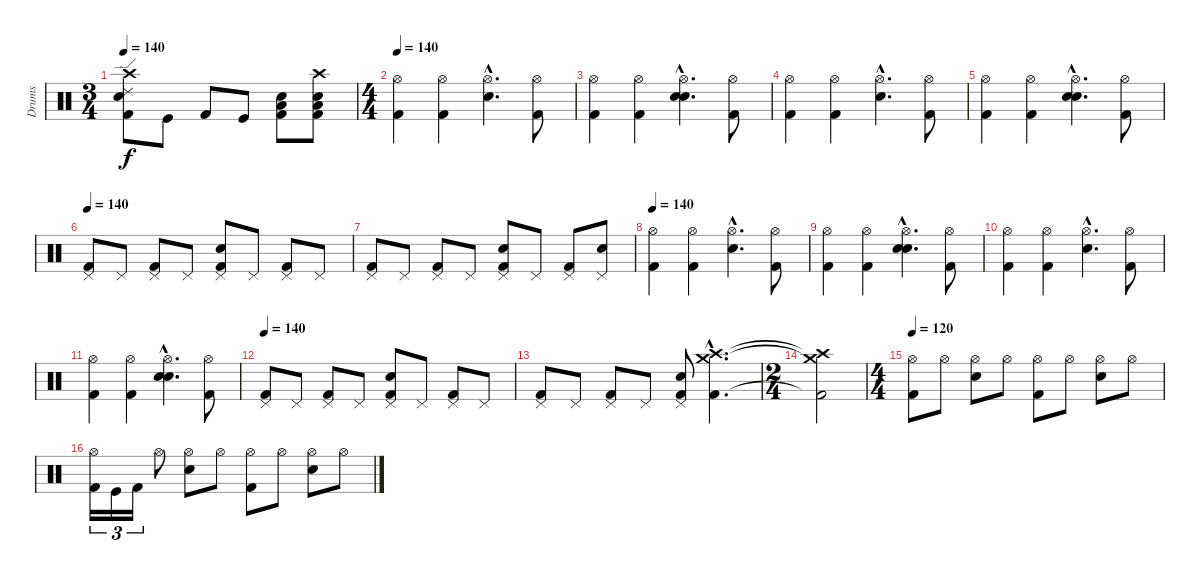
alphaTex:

\track ("Drums" "Drums") {instrument percussion}
\staff {score}
\articulation defaults
\ts (3 4)
\tempo 140
\clef neutral
\ks c
("Crash high (hit)" "Ride (edge) 2" "Electric Snare (hit)" "Kick (hit) 2").8{dy f} "Kick (hit)".8 "Kick (hit) 2".8 "Kick (hit)".8 ("Electric Snare (hit)" "Low Tom (hit)" "Kick (hit) 2").8 ("Crash high (hit)" "Electric Snare (hit)" "Low Tom (hit)" "Kick (hit) 2").8 |
\ts (4 4)
\tempo 140
("Hi-Hat (open)" "Kick (hit) 2").4 ("Hi-Hat (open)" "Kick (hit) 2").4 ("Hi-Hat (open)"{hac} "Snare (hit) 2"{hac}).4{d} ("Hi-Hat (open)" "Kick (hit) 2").8 |
("Hi-Hat (open)" "Kick (hit) 2").4 ("Hi-Hat (open)" "Kick (hit) 2").4 ("Hi-Hat (open)"{hac} "Snare (hit) 2"{hac} "Electric Snare (hit)"{hac}).4{d} ("Hi-Hat (open)" "Kick (hit) 2").8 |
("Hi-Hat (open)" "Kick (hit) 2").4 ("Hi-Hat (open)" "Kick (hit) 2").4 ("Hi-Hat (open)"{hac} "Snare (hit) 2"{hac}).4{d} ("Hi-Hat (open)" "Kick (hit) 2").8 |
("Hi-Hat (open)" "Kick (hit) 2").4 ("Hi-Hat (open)" "Kick (hit) 2").4 ("Hi-Hat (open)"{hac} "Snare (hit) 2"{hac} "Electric Snare (hit)"{hac}).4{d} ("Hi-Hat (open)" "Kick (hit) 2").8 |
\tempo 140
("Pedal Hi-Hat (hit)" "Kick (hit) 2").8 "Pedal Hi-Hat (hit)".8 ("Pedal Hi-Hat (hit)" "Kick (hit) 2").8 "Pedal Hi-Hat (hit)".8 ("Pedal Hi-Hat (hit)" "Snare (hit) 2" "Kick (hit) 2").8 "Pedal Hi-Hat (hit)".8 ("Pedal Hi-Hat (hit)" "Kick (hit) 2").8 "Pedal Hi-Hat (hit)".8 |
("Pedal Hi-Hat (hit)" "Kick (hit) 2").8 "Pedal Hi-Hat (hit)".8 ("Pedal Hi-Hat (hit)" "Kick (hit) 2").8 "Pedal Hi-Hat (hit)".8 ("Pedal Hi-Hat (hit)" "Snare (hit) 2" "Kick (hit) 2").8 "Pedal Hi-Hat (hit)".8 ("Pedal Hi-Hat (hit)" "Kick (hit) 2").8 ("Pedal Hi-Hat (hit)" "Snare (hit) 2").8 |
\tempo 140
("Hi-Hat (open)" "Kick (hit) 2").4 ("Hi-Hat (open)" "Kick (hit) 2").4 ("Hi-Hat (open)"{hac} "Snare (hit) 2"{hac}).4{d} ("Hi-Hat (open)" "Kick (hit) 2").8 |
("Hi-Hat (open)" "Kick (hit) 2").4 ("Hi-Hat (open)" "Kick (hit) 2").4 ("Hi-Hat (open)"{hac} "Snare (hit) 2"{hac} "Electric Snare (hit)"{hac}).4{d} ("Hi-Hat (open)" "Kick (hit) 2").8 |
("Hi-Hat (open)" "Kick (hit) 2").4 ("Hi-Hat (open)" "Kick (hit) 2").4 ("Hi-Hat (open)"{hac} "Snare (hit) 2"{hac}).4{d} ("Hi-Hat (open)" "Kick (hit) 2").8 |
("Hi-Hat (open)" "Kick (hit) 2").4 ("Hi-Hat (open)" "Kick (hit) 2").4 ("Hi-Hat (open)"{hac} "Snare (hit) 2"{hac} "Electric Snare (hit)"{hac}).4{d} ("Hi-Hat (open)" "Kick (hit) 2").8 |
\tempo 140
("Pedal Hi-Hat (hit)" "Kick (hit) 2").8 "Pedal Hi-Hat (hit)".8 ("Pedal Hi-Hat (hit)" "Kick (hit) 2").8 "Pedal Hi-Hat (hit)".8 ("Pedal Hi-Hat (hit)" "Snare (hit) 2" "Kick (hit) 2").8 "Pedal Hi-Hat (hit)".8 ("Pedal Hi-Hat (hit)" "Kick (hit) 2").8 "Pedal Hi-Hat (hit)".8 |
("Pedal Hi-Hat (hit)" "Kick (hit) 2").8 "Pedal Hi-Hat (hit)".8 ("Pedal Hi-Hat (hit)" "Kick (hit) 2").8 "Pedal Hi-Hat (hit)".8 ("Pedal Hi-Hat (hit)" "Snare (hit) 2" "Kick (hit) 2").8 ("Crash medium (hit)"{hac} "Crash high (hit)"{hac} "Kick (hit) 2"{hac}).4{d} |
\ts (2 4)
("Crash medium (hit)"{t} "Crash high (hit)"{t} "Kick (hit) 2"{t}).2 |
\ts (4 4)
\tempo 120
("Hi-Hat (open)" "Kick (hit) 2").8 "Hi-Hat (open)".8 ("Hi-Hat (open)" "Snare (hit) 2").8 "Hi-Hat (open)".8 ("Hi-Hat (open)" "Kick (hit) 2").8 "Hi-Hat (open)".8 ("Hi-Hat (open)" "Snare (hit) 2").8 "Hi-Hat (open)".8 |
("Hi-Hat (open)" "Kick (hit) 2").16{tu (3 2)} "Kick (hit)".16{tu (3 2)} "Kick (hit) 2".16{tu (3 2)} "Hi-Hat (open)".8 ("Hi-Hat (open)" "Snare (hit) 2").8 "Hi-Hat (open)".8 ("Hi-Hat (open)" "Kick (hit) 2").8 "Hi-Hat (open)".8 ("Hi-Hat (open)" "Snare (hit) 2").8 "Hi-Hat (open)".8
